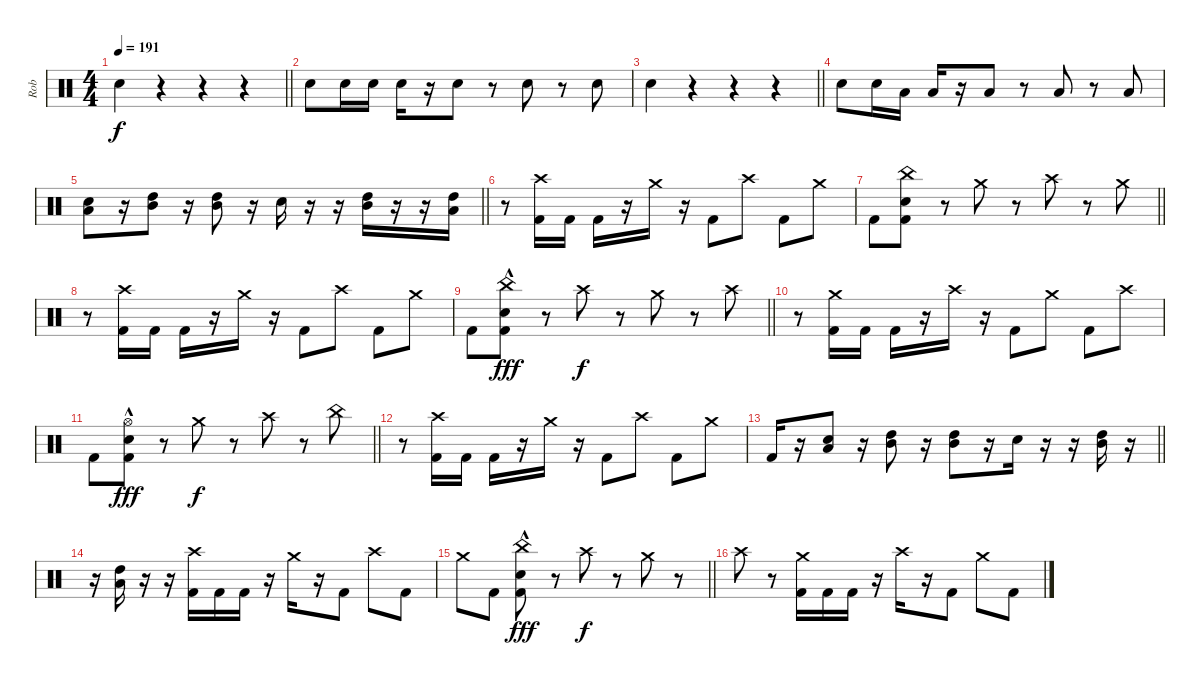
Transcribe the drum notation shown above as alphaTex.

\track ("Rob" "Rob") {instrument percussion}
\staff {score}
\articulation defaults
\ts (4 4)
\tempo 191
\clef neutral
\barLineRight lightlight
\ks c "Snare (hit) 2".4{dy f}
r.4 r.4 r.4 |
"Snare (hit) 2".8 "Snare (hit) 2".16 "Snare (hit) 2".16 "Snare (hit) 2".16 r.16 "Snare (hit) 2".8 r.8 "Snare (hit) 2".8 r.8 "Snare (hit) 2".8 |
\barLineRight lightlight "Snare (hit) 2".4
r.4 r.4 r.4 |
"Snare (hit) 2".8 "Snare (hit) 2".16 "Low Tom (hit)".16 "Low Tom (hit)".16 r.16 "Low Tom (hit)".8 r.8 "Low Tom (hit)".8 r.8 "Low Tom (hit)".8 |
\barLineRight lightlight
("Snare (hit) 2" "Low Tom (hit)").8 r.16 ("Mid Tom (hit)" "High Tom (hit)").8 r.16 ("Mid Tom (hit)" "High Tom (hit)").8 r.16 "Snare (hit) 2".16 r.16 r.16 ("Mid Tom (hit)" "High Tom (hit)").16 r.16 r.16 ("High Tom (hit)" "Low Tom (hit)").16 |
r.8 ("Kick (hit) 2" "Crash high (hit)").16 "Kick (hit) 2".16 "Kick (hit) 2".16 r.16 "Crash medium (hit)".16 r.16 "Kick (hit) 2".8 "Crash high (hit)".8 "Kick (hit) 2".8 "Crash medium (hit)".8 |
\barLineRight lightlight "Kick (hit) 2".8
("Kick (hit) 2" "China (hit)" "Snare (hit) 2").8 r.8 "Crash medium (hit)".8 r.8 "Crash high (hit)".8 r.8 "Crash medium (hit)".8 |
r.8 ("Kick (hit) 2" "Crash high (hit)").16 "Kick (hit) 2".16 "Kick (hit) 2".16 r.16 "Crash medium (hit)".16 r.16 "Kick (hit) 2".8 "Crash high (hit)".8 "Kick (hit) 2".8 "Crash medium (hit)".8 |
\barLineRight lightlight "Kick (hit) 2".8
("Kick (hit) 2" "China (hit)"{hac} "Snare (hit) 2").8{dy fff} r.8 "Crash high (hit)".8{dy f} r.8 "Crash medium (hit)".8 r.8 "Crash high (hit)".8 |
r.8 ("Kick (hit) 2" "Crash medium (hit)").16 "Kick (hit) 2".16 "Kick (hit) 2".16 r.16 "Crash high (hit)".16 r.16 "Kick (hit) 2".8 "Crash medium (hit)".8 "Kick (hit) 2".8 "Crash high (hit)".8 |
\barLineRight lightlight "Kick (hit) 2".8
("Kick (hit) 2" "Hi-Hat (open)"{hac} "Snare (hit) 2").8{dy fff} r.8 "Crash medium (hit)".8{dy f} r.8 "Crash high (hit)".8 r.8 "China (hit)".8 |
r.8 ("Kick (hit) 2" "Crash high (hit)").16 "Kick (hit) 2".16 "Kick (hit) 2".16 r.16 "Crash medium (hit)".16 r.16 "Kick (hit) 2".8 "Crash high (hit)".8 "Kick (hit) 2".8 "Crash medium (hit)".8 |
\barLineRight lightlight "Kick (hit) 2".16
r.16 ("Snare (hit) 2" "Low Tom (hit)").8 r.16 ("Mid Tom (hit)" "High Tom (hit)").8 r.16 ("Mid Tom (hit)" "High Tom (hit)").8 r.16 "Snare (hit) 2".16 r.16 r.16 ("Mid Tom (hit)" "High Tom (hit)").16 r.16 |
r.16 ("Low Tom (hit)" "High Tom (hit)").16 r.16 r.16 ("Kick (hit) 2" "Crash high (hit)").16 "Kick (hit) 2".16 "Kick (hit) 2".16 r.16 "Crash medium (hit)".16 r.16 "Kick (hit) 2".8 "Crash high (hit)".8 "Kick (hit) 2".8 |
\barLineRight lightlight "Crash medium (hit)".8 "Kick (hit) 2".8
("Kick (hit) 2" "China (hit)"{hac} "Snare (hit) 2").8{dy fff} r.8 "Crash high (hit)".8{dy f} r.8 "Crash medium (hit)".8 r.8 |
"Crash high (hit)".8 r.8 ("Kick (hit) 2" "Crash medium (hit)").16 "Kick (hit) 2".16 "Kick (hit) 2".16 r.16 "Crash high (hit)".16 r.16 "Kick (hit) 2".8 "Crash medium (hit)".8 "Kick (hit) 2".8
